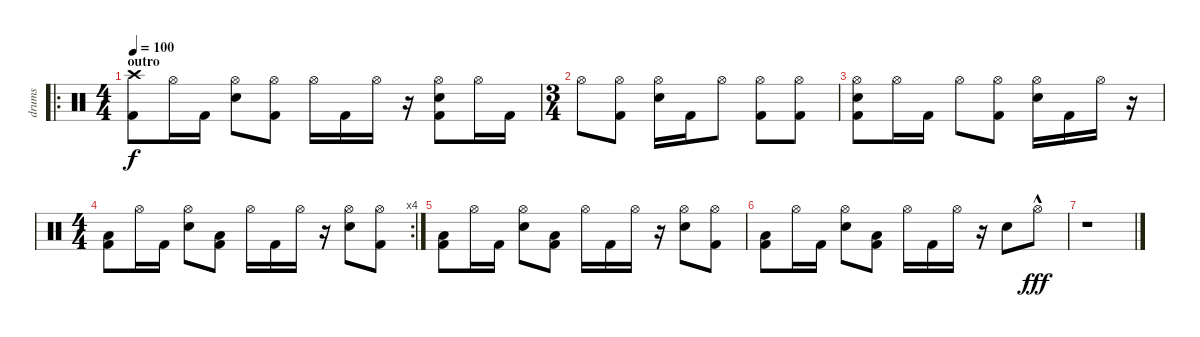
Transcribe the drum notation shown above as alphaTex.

\track ("drums" "drums") {instrument percussion}
\staff {score}
\articulation defaults
\ro
\ts (4 4)
\section ("" "outro")
\tempo 100
\clef neutral
\ks c
("Crash high (hit)" "Kick (hit) 2").8{dy f} "Hi-Hat (open)".16 "Kick (hit) 2".16 ("Hi-Hat (open)" "Snare (hit) 2").8 ("Hi-Hat (open)" "Kick (hit) 2").8 "Hi-Hat (open)".16 "Kick (hit) 2".16 "Hi-Hat (open)".16 r.16 ("Hi-Hat (open)" "Snare (hit) 2" "Kick (hit) 2").8 "Hi-Hat (open)".16 "Kick (hit) 2".16 |
\ts (3 4)
"Hi-Hat (open)".8 ("Hi-Hat (open)" "Kick (hit) 2").8 ("Hi-Hat (open)" "Snare (hit) 2").16 "Kick (hit) 2".16 "Hi-Hat (open)".8 ("Hi-Hat (open)" "Kick (hit) 2").8 ("Hi-Hat (open)" "Kick (hit) 2").8 |
("Hi-Hat (open)" "Snare (hit) 2" "Kick (hit) 2").8 "Hi-Hat (open)".16 "Kick (hit) 2".16 "Hi-Hat (open)".8 ("Hi-Hat (open)" "Kick (hit) 2").8 ("Hi-Hat (open)" "Snare (hit) 2").16 "Kick (hit) 2".16 "Hi-Hat (open)".16 r.16 |
\rc 4
\ts (4 4)
("Low Floor Tom (hit)" "Kick (hit) 2").8 "Hi-Hat (open)".16 "Kick (hit) 2".16 ("Hi-Hat (open)" "Snare (hit) 2").8 ("Low Floor Tom (hit)" "Kick (hit) 2").8 "Hi-Hat (open)".16 "Kick (hit) 2".16 "Hi-Hat (open)".16 r.16 ("Hi-Hat (open)" "Snare (hit) 2").8 ("Hi-Hat (open)" "Kick (hit) 2").8 |
("Low Floor Tom (hit)" "Kick (hit) 2").8 "Hi-Hat (open)".16 "Kick (hit) 2".16 ("Hi-Hat (open)" "Snare (hit) 2").8 ("Low Floor Tom (hit)" "Kick (hit) 2").8 "Hi-Hat (open)".16 "Kick (hit) 2".16 "Hi-Hat (open)".16 r.16 ("Hi-Hat (open)" "Snare (hit) 2").8 ("Hi-Hat (open)" "Kick (hit) 2").8 |
("Low Floor Tom (hit)" "Kick (hit) 2").8 "Hi-Hat (open)".16 "Kick (hit) 2".16 ("Hi-Hat (open)" "Snare (hit) 2").8 ("Low Floor Tom (hit)" "Kick (hit) 2").8 "Hi-Hat (open)".16 "Kick (hit) 2".16 "Hi-Hat (open)".16 r.16 "Snare (hit) 2".8 "Hi-Hat (open)"{hac}.8{dy fff} |
r.1
